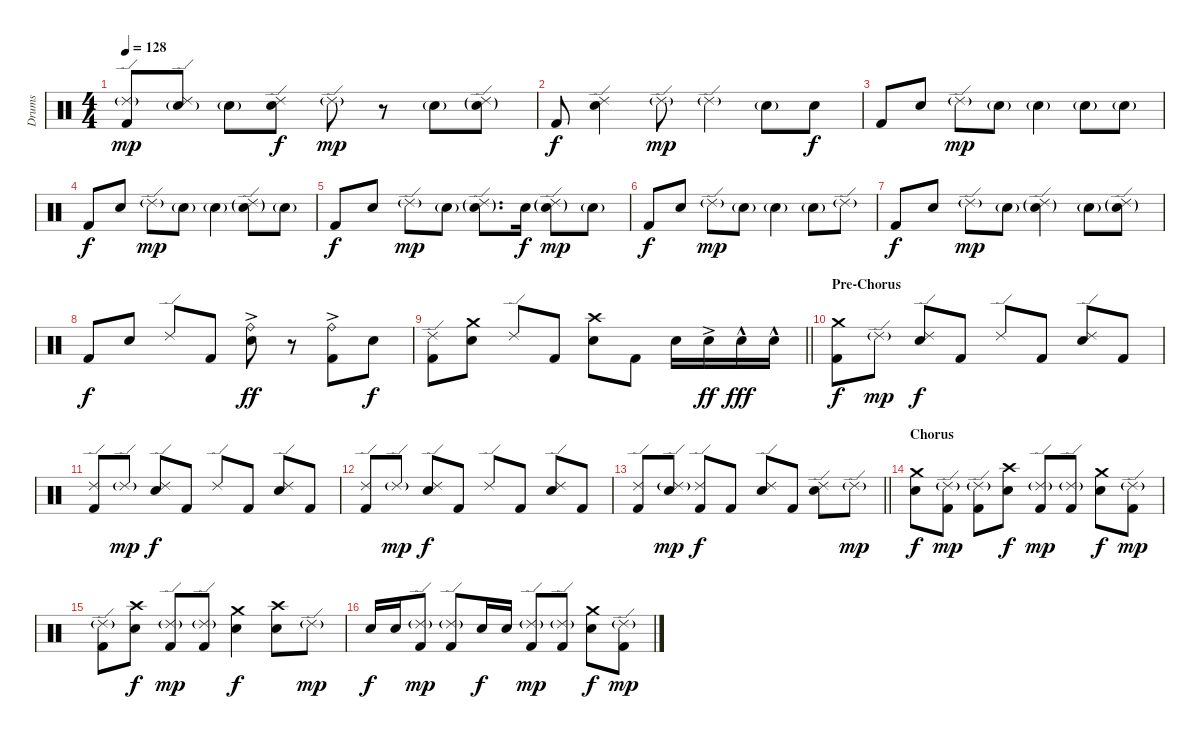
\track ("Drums" "Drums") {instrument percussion}
\staff {score}
\articulation defaults
\ts (4 4)
\tempo 128
\clef neutral
\ks c
("Ride (edge) 2"{g} "Kick (hit) 2").8{dy mp} ("Ride (edge) 2" "Snare (hit) 2"{g}).8 "Snare (hit) 2"{g}.8 ("Ride (edge) 2" "Snare (hit) 2").8{dy f} "Ride (edge) 2"{g}.8{dy mp} r.8 "Snare (hit) 2"{g}.8 ("Ride (edge) 2"{g} "Snare (hit) 2"{g}).8 |
"Kick (hit) 2".8{dy f} ("Ride (edge) 2" "Snare (hit) 2").4 "Ride (edge) 2"{g}.8{dy mp} "Ride (edge) 2"{g}.4 "Snare (hit) 2"{g}.8 "Snare (hit) 2".8{dy f} |
"Kick (hit) 2".8 "Snare (hit) 2".8 "Ride (edge) 2"{g}.8{dy mp} "Snare (hit) 2"{g}.8 "Snare (hit) 2"{g}.4 "Snare (hit) 2"{g}.8 "Snare (hit) 2"{g}.8 |
"Kick (hit) 2".8{dy f} "Snare (hit) 2".8 "Ride (edge) 2"{g}.8{dy mp} "Snare (hit) 2"{g}.8 "Snare (hit) 2"{g}.4 ("Ride (edge) 2"{g} "Snare (hit) 2"{g}).8 "Snare (hit) 2"{g}.8 |
"Kick (hit) 2".8{dy f} "Snare (hit) 2".8 "Ride (edge) 2"{g}.8{dy mp} "Snare (hit) 2"{g}.8 ("Ride (edge) 2"{g} "Snare (hit) 2"{g}).8{d} "Snare (hit) 2".16{dy f} ("Ride (edge) 2"{g} "Snare (hit) 2"{g}).8{dy mp} "Snare (hit) 2"{g}.8 |
"Kick (hit) 2".8{dy f} "Snare (hit) 2".8 "Ride (edge) 2"{g}.8{dy mp} "Snare (hit) 2"{g}.8 "Snare (hit) 2"{g}.4 "Snare (hit) 2"{g}.8 "Ride (edge) 2"{g}.8 |
"Kick (hit) 2".8{dy f} "Snare (hit) 2".8 "Ride (edge) 2"{g}.8{dy mp} "Snare (hit) 2"{g}.8 ("Ride (edge) 2"{g} "Snare (hit) 2"{g}).4 "Snare (hit) 2"{g}.8 ("Ride (edge) 2"{g} "Snare (hit) 2"{g}).8 |
"Kick (hit) 2".8{dy f} "Snare (hit) 2".8 "Ride (edge) 2".8 "Kick (hit) 2".8 ("Ride (bell)"{ac} "Snare (hit) 2").8{dy ff} r.8 ("Ride (bell)"{ac} "Kick (hit) 2").8 "Snare (hit) 2".8{dy f} |
\barLineRight lightlight
("Ride (edge) 2" "Kick (hit) 2").8 ("Crash medium (hit)" "Snare (hit) 2").8 "Ride (edge) 2".8 "Kick (hit) 2".8 ("Crash high (hit)" "Snare (hit) 2").8 "Kick (hit) 2".8 "Snare (hit) 2".16 "Snare (hit) 2"{ac}.16{dy ff} "Snare (hit) 2"{hac}.16{dy fff} "Snare (hit) 2"{hac}.16 |
\section ("" "Pre-Chorus")
("Crash medium (hit)" "Kick (hit) 2").8{dy f} "Ride (edge) 2"{g}.8{dy mp} ("Ride (edge) 2" "Snare (hit) 2").8{dy f} "Kick (hit) 2".8 "Ride (edge) 2".8 "Kick (hit) 2".8 ("Ride (edge) 2" "Snare (hit) 2").8 "Kick (hit) 2".8 |
("Ride (edge) 2" "Kick (hit) 2").8 "Ride (edge) 2"{g}.8{dy mp} ("Ride (edge) 2" "Snare (hit) 2").8{dy f} "Kick (hit) 2".8 "Ride (edge) 2".8 "Kick (hit) 2".8 ("Ride (edge) 2" "Snare (hit) 2").8 "Kick (hit) 2".8 |
("Ride (edge) 2" "Kick (hit) 2").8 "Ride (edge) 2"{g}.8{dy mp} ("Ride (edge) 2" "Snare (hit) 2").8{dy f} "Kick (hit) 2".8 "Ride (edge) 2".8 "Kick (hit) 2".8 ("Ride (edge) 2" "Snare (hit) 2").8 "Kick (hit) 2".8 |
\barLineRight lightlight
("Ride (edge) 2" "Kick (hit) 2").8 ("Ride (edge) 2"{g} "Snare (hit) 2").8{dy mp} ("Ride (edge) 2" "Kick (hit) 2").8{dy f} "Kick (hit) 2".8 ("Ride (edge) 2" "Snare (hit) 2").8 "Kick (hit) 2".8 ("Ride (edge) 2" "Snare (hit) 2").8 "Ride (edge) 2"{g}.8{dy mp} |
\section ("" "Chorus")
("Crash medium (hit)" "Snare (hit) 2").8{dy f} ("Ride (edge) 2"{g} "Kick (hit) 2").8{dy mp} ("Ride (edge) 2"{g} "Kick (hit) 2").8 ("Crash high (hit)" "Snare (hit) 2").8{dy f} ("Ride (edge) 2"{g} "Kick (hit) 2").8{dy mp} ("Ride (edge) 2"{g} "Kick (hit) 2").8 ("Crash medium (hit)" "Snare (hit) 2").8{dy f} ("Ride (edge) 2"{g} "Kick (hit) 2").8{dy mp} |
("Ride (edge) 2"{g} "Kick (hit) 2").8 ("Crash high (hit)" "Snare (hit) 2").8{dy f} ("Ride (edge) 2"{g} "Kick (hit) 2").8{dy mp} ("Ride (edge) 2"{g} "Kick (hit) 2").8 ("Crash medium (hit)" "Snare (hit) 2").4{dy f} ("Crash high (hit)" "Snare (hit) 2").8 "Ride (edge) 2"{g}.8{dy mp} |
"Snare (hit) 2".16{dy f} "Snare (hit) 2".16 ("Ride (edge) 2"{g} "Kick (hit) 2").8{dy mp} ("Ride (edge) 2"{g} "Kick (hit) 2").8 "Snare (hit) 2".16{dy f} "Snare (hit) 2".16 ("Ride (edge) 2"{g} "Kick (hit) 2").8{dy mp} ("Ride (edge) 2"{g} "Kick (hit) 2").8 ("Crash medium (hit)" "Snare (hit) 2").8{dy f} ("Ride (edge) 2"{g} "Kick (hit) 2").8{dy mp}
